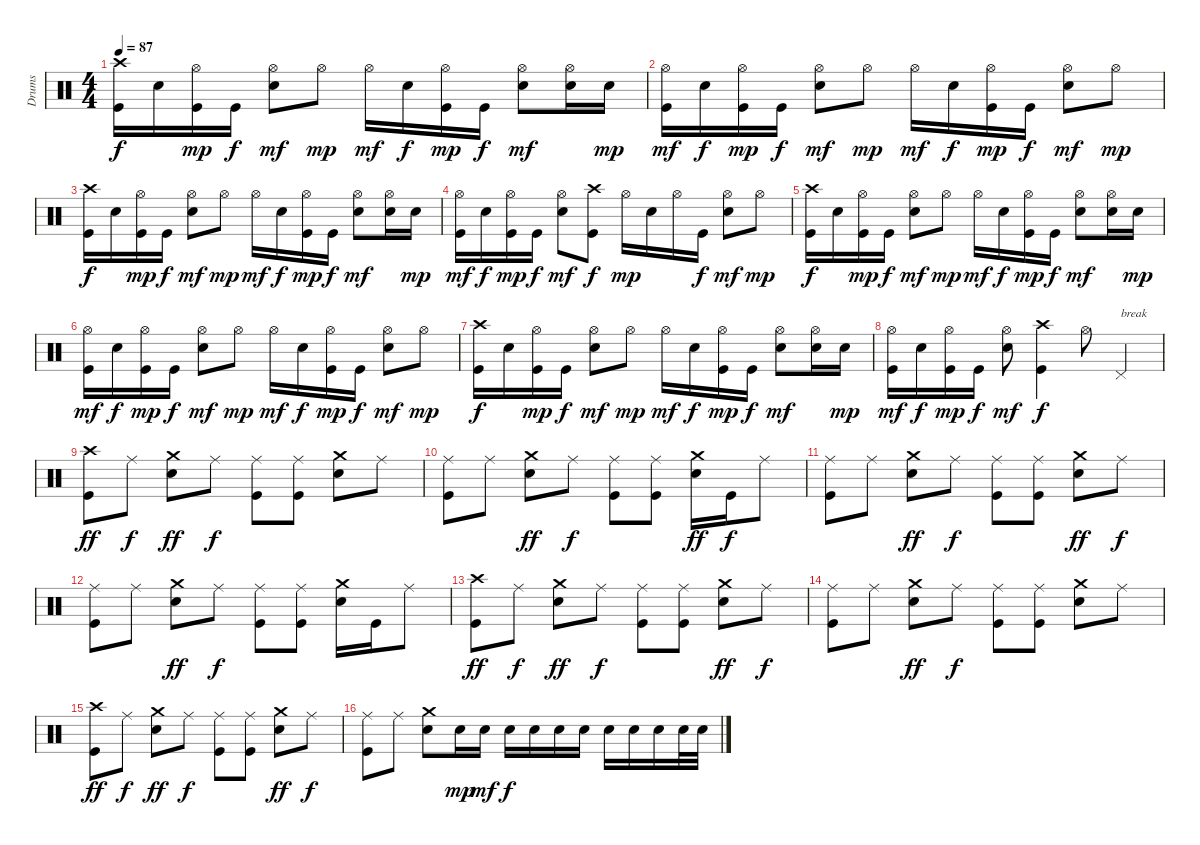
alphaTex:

\track ("Drums" "Drums") {instrument percussion}
\staff {score}
\articulation defaults
\ts (4 4)
\tempo 87
\clef neutral
\ks c
("Crash high (hit)" "Kick (hit)").16{dy f} "Snare (hit) 2".16 ("Hi-Hat (open)" "Kick (hit)").16{dy mp} "Kick (hit)".16{dy f} ("Hi-Hat (open)" "Snare (hit) 2").8{dy mf} "Hi-Hat (open)".8{dy mp} "Hi-Hat (open)".16{dy mf} "Snare (hit) 2".16{dy f} ("Hi-Hat (open)" "Kick (hit)").16{dy mp} "Kick (hit)".16{dy f} ("Hi-Hat (open)" "Snare (hit) 2").8{dy mf} ("Hi-Hat (open)" "Snare (hit) 2").16 "Snare (hit) 2".16{dy mp} |
("Hi-Hat (open)" "Kick (hit)").16{dy mf} "Snare (hit) 2".16{dy f} ("Hi-Hat (open)" "Kick (hit)").16{dy mp} "Kick (hit)".16{dy f} ("Hi-Hat (open)" "Snare (hit) 2").8{dy mf} "Hi-Hat (open)".8{dy mp} "Hi-Hat (open)".16{dy mf} "Snare (hit) 2".16{dy f} ("Hi-Hat (open)" "Kick (hit)").16{dy mp} "Kick (hit)".16{dy f} ("Hi-Hat (open)" "Snare (hit) 2").8{dy mf} "Hi-Hat (open)".8{dy mp} |
("Crash high (hit)" "Kick (hit)").16{dy f} "Snare (hit) 2".16 ("Hi-Hat (open)" "Kick (hit)").16{dy mp} "Kick (hit)".16{dy f} ("Hi-Hat (open)" "Snare (hit) 2").8{dy mf} "Hi-Hat (open)".8{dy mp} "Hi-Hat (open)".16{dy mf} "Snare (hit) 2".16{dy f} ("Hi-Hat (open)" "Kick (hit)").16{dy mp} "Kick (hit)".16{dy f} ("Hi-Hat (open)" "Snare (hit) 2").8{dy mf} ("Hi-Hat (open)" "Snare (hit) 2").16 "Snare (hit) 2".16{dy mp} |
("Hi-Hat (open)" "Kick (hit)").16{dy mf} "Snare (hit) 2".16{dy f} ("Hi-Hat (open)" "Kick (hit)").16{dy mp} "Kick (hit)".16{dy f} ("Hi-Hat (open)" "Snare (hit) 2").8{dy mf} ("Crash high (hit)" "Kick (hit)").8{dy f} "Hi-Hat (open)".16{dy mp} "Snare (hit) 2".16 "Hi-Hat (open)".16 "Kick (hit)".16{dy f} ("Hi-Hat (open)" "Snare (hit) 2").8{dy mf} "Hi-Hat (open)".8{dy mp} |
("Crash high (hit)" "Kick (hit)").16{dy f} "Snare (hit) 2".16 ("Hi-Hat (open)" "Kick (hit)").16{dy mp} "Kick (hit)".16{dy f} ("Hi-Hat (open)" "Snare (hit) 2").8{dy mf} "Hi-Hat (open)".8{dy mp} "Hi-Hat (open)".16{dy mf} "Snare (hit) 2".16{dy f} ("Hi-Hat (open)" "Kick (hit)").16{dy mp} "Kick (hit)".16{dy f} ("Hi-Hat (open)" "Snare (hit) 2").8{dy mf} ("Hi-Hat (open)" "Snare (hit) 2").16 "Snare (hit) 2".16{dy mp} |
("Hi-Hat (open)" "Kick (hit)").16{dy mf} "Snare (hit) 2".16{dy f} ("Hi-Hat (open)" "Kick (hit)").16{dy mp} "Kick (hit)".16{dy f} ("Hi-Hat (open)" "Snare (hit) 2").8{dy mf} "Hi-Hat (open)".8{dy mp} "Hi-Hat (open)".16{dy mf} "Snare (hit) 2".16{dy f} ("Hi-Hat (open)" "Kick (hit)").16{dy mp} "Kick (hit)".16{dy f} ("Hi-Hat (open)" "Snare (hit) 2").8{dy mf} "Hi-Hat (open)".8{dy mp} |
("Crash high (hit)" "Kick (hit)").16{dy f} "Snare (hit) 2".16 ("Hi-Hat (open)" "Kick (hit)").16{dy mp} "Kick (hit)".16{dy f} ("Hi-Hat (open)" "Snare (hit) 2").8{dy mf} "Hi-Hat (open)".8{dy mp} "Hi-Hat (open)".16{dy mf} "Snare (hit) 2".16{dy f} ("Hi-Hat (open)" "Kick (hit)").16{dy mp} "Kick (hit)".16{dy f} ("Hi-Hat (open)" "Snare (hit) 2").8{dy mf} ("Hi-Hat (open)" "Snare (hit) 2").16 "Snare (hit) 2".16{dy mp} |
("Hi-Hat (open)" "Kick (hit)").16{dy mf} "Snare (hit) 2".16{dy f} ("Hi-Hat (open)" "Kick (hit)").16{dy mp} "Kick (hit)".16{dy f} ("Hi-Hat (open)" "Snare (hit) 2").8{dy mf} ("Crash high (hit)" "Kick (hit)").4{dy f} "Hi-Hat (open)".8 "Pedal Hi-Hat (hit)".4{txt "break"} |
("Crash high (hit)" "Kick (hit)").8{dy ff} "Ride (middle)".8{dy f} ("Crash medium (hit)" "Snare (hit) 2").8{dy ff} "Ride (middle)".8{dy f} ("Ride (middle)" "Kick (hit)").8 ("Ride (middle)" "Kick (hit)").8 ("Crash medium (hit)" "Snare (hit) 2").8 "Ride (middle)".8 |
("Ride (middle)" "Kick (hit)").8 "Ride (middle)".8 ("Crash medium (hit)" "Snare (hit) 2").8{dy ff} "Ride (middle)".8{dy f} ("Ride (middle)" "Kick (hit)").8 ("Ride (middle)" "Kick (hit)").8 ("Crash medium (hit)" "Snare (hit) 2").16{dy ff} "Kick (hit)".16{dy f} "Ride (middle)".8 |
("Ride (middle)" "Kick (hit)").8 "Ride (middle)".8 ("Crash medium (hit)" "Snare (hit) 2").8{dy ff} "Ride (middle)".8{dy f} ("Ride (middle)" "Kick (hit)").8 ("Ride (middle)" "Kick (hit)").8 ("Crash medium (hit)" "Snare (hit) 2").8{dy ff} "Ride (middle)".8{dy f} |
("Ride (middle)" "Kick (hit)").8 "Ride (middle)".8 ("Crash medium (hit)" "Snare (hit) 2").8{dy ff} "Ride (middle)".8{dy f} ("Ride (middle)" "Kick (hit)").8 ("Ride (middle)" "Kick (hit)").8 ("Crash medium (hit)" "Snare (hit) 2").16 "Kick (hit)".16 "Ride (middle)".8 |
("Crash high (hit)" "Kick (hit)").8{dy ff} "Ride (middle)".8{dy f} ("Crash medium (hit)" "Snare (hit) 2").8{dy ff} "Ride (middle)".8{dy f} ("Ride (middle)" "Kick (hit)").8 ("Ride (middle)" "Kick (hit)").8 ("Crash medium (hit)" "Snare (hit) 2").8{dy ff} "Ride (middle)".8{dy f} |
("Ride (middle)" "Kick (hit)").8 "Ride (middle)".8 ("Crash medium (hit)" "Snare (hit) 2").8{dy ff} "Ride (middle)".8{dy f} ("Ride (middle)" "Kick (hit)").8 ("Ride (middle)" "Kick (hit)").8 ("Crash medium (hit)" "Snare (hit) 2").8 "Ride (middle)".8 |
("Crash high (hit)" "Kick (hit)").8{dy ff} "Ride (middle)".8{dy f} ("Crash medium (hit)" "Snare (hit) 2").8{dy ff} "Ride (middle)".8{dy f} ("Ride (middle)" "Kick (hit)").8 ("Ride (middle)" "Kick (hit)").8 ("Crash medium (hit)" "Snare (hit) 2").8{dy ff} "Ride (middle)".8{dy f} |
("Ride (middle)" "Kick (hit)").8 "Ride (middle)".8 ("Crash medium (hit)" "Snare (hit) 2").8 "Snare (hit) 2".16{dy mp} "Snare (hit) 2".16{dy mf} "Snare (hit) 2".16{dy f} "Snare (hit) 2".16 "Snare (hit) 2".16 "Snare (hit) 2".16 "Snare (hit) 2".16 "Snare (hit) 2".16 "Snare (hit) 2".16 "Snare (hit) 2".32 "Snare (hit) 2".32
